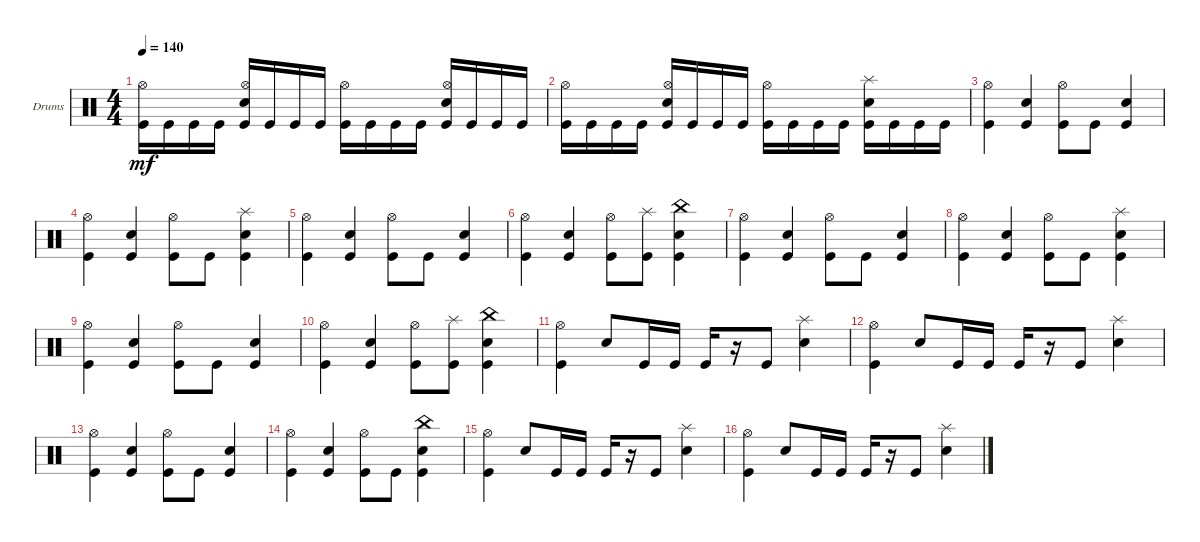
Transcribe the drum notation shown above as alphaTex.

\defaultSystemsLayout 4
\bracketExtendMode groupsimilarinstruments
\firstSystemTrackNameOrientation horizontal
\otherSystemsTrackNameOrientation horizontal
\track ("Drumkit" "Drums") {instrument percussion}
\staff {score}
\articulation defaults
\ts (4 4)
\tempo 140
\clef neutral
\scale
0.333333
\ks c
("Kick (hit)" "Hi-Hat (open)").16{dy mf} "Kick (hit)".16 "Kick (hit)".16 "Kick (hit)".16 ("Kick (hit)" "Snare (hit) 2" "Hi-Hat (open)").16 "Kick (hit)".16 "Kick (hit)".16 "Kick (hit)".16 ("Kick (hit)" "Hi-Hat (open)").16 "Kick (hit)".16 "Kick (hit)".16 "Kick (hit)".16 ("Kick (hit)" "Snare (hit) 2" "Hi-Hat (open)").16 "Kick (hit)".16 "Kick (hit)".16 "Kick (hit)".16 |
\scale
0.333333 ("Kick (hit)" "Hi-Hat (open)").16 "Kick (hit)".16 "Kick (hit)".16 "Kick (hit)".16 ("Kick (hit)" "Snare (hit) 2" "Hi-Hat (open)").16 "Kick (hit)".16 "Kick (hit)".16 "Kick (hit)".16 ("Kick (hit)" "Hi-Hat (open)").16 "Kick (hit)".16 "Kick (hit)".16 "Kick (hit)".16 ("Kick (hit)" "Snare (hit) 2" "Splash (hit)").16 "Kick (hit)".16 "Kick (hit)".16 "Kick (hit)".16 |
\scale
0.333333 ("Hi-Hat (open)" "Kick (hit)").4 ("Kick (hit)" "Snare (hit) 2").4 ("Hi-Hat (open)" "Kick (hit)").8 "Kick (hit)".8 ("Kick (hit)" "Snare (hit) 2").4 |
\scale
0.333333 ("Hi-Hat (open)" "Kick (hit)").4 ("Kick (hit)" "Snare (hit) 2").4 ("Hi-Hat (open)" "Kick (hit)").8 "Kick (hit)".8 ("Kick (hit)" "Snare (hit) 2" "Splash (hit)").4 |
\scale
0.333333 ("Hi-Hat (open)" "Kick (hit)").4 ("Kick (hit)" "Snare (hit) 2").4 ("Hi-Hat (open)" "Kick (hit)").8 "Kick (hit)".8 ("Kick (hit)" "Snare (hit) 2").4 |
\scale
0.333333 ("Hi-Hat (open)" "Kick (hit)").4 ("Kick (hit)" "Snare (hit) 2").4 ("Hi-Hat (open)" "Kick (hit)").8 ("Kick (hit)" "Splash (hit)").8 ("Kick (hit)" "Snare (hit) 2" "China (hit)").4 |
\scale
0.333333 ("Hi-Hat (open)" "Kick (hit)").4 ("Kick (hit)" "Snare (hit) 2").4 ("Hi-Hat (open)" "Kick (hit)").8 "Kick (hit)".8 ("Kick (hit)" "Snare (hit) 2").4 |
\scale
0.333333 ("Hi-Hat (open)" "Kick (hit)").4 ("Kick (hit)" "Snare (hit) 2").4 ("Hi-Hat (open)" "Kick (hit)").8 "Kick (hit)".8 ("Kick (hit)" "Snare (hit) 2" "Splash (hit)").4 |
\scale
0.333333 ("Hi-Hat (open)" "Kick (hit)").4 ("Kick (hit)" "Snare (hit) 2").4 ("Hi-Hat (open)" "Kick (hit)").8 "Kick (hit)".8 ("Kick (hit)" "Snare (hit) 2").4 |
\scale
0.333333 ("Hi-Hat (open)" "Kick (hit)").4 ("Kick (hit)" "Snare (hit) 2").4 ("Hi-Hat (open)" "Kick (hit)").8 ("Kick (hit)" "Splash (hit)").8 ("Kick (hit)" "Snare (hit) 2" "China (hit)").4 |
\scale
0.333333 ("Kick (hit)" "Hi-Hat (open)").4 "Snare (hit) 2".8 "Kick (hit)".16 "Kick (hit)".16 "Kick (hit)".16 r.16 "Kick (hit)".8 ("Snare (hit) 2" "Splash (hit)").4 |
\scale
0.333333 ("Kick (hit)" "Hi-Hat (open)").4 "Snare (hit) 2".8 "Kick (hit)".16 "Kick (hit)".16 "Kick (hit)".16 r.16 "Kick (hit)".8 ("Snare (hit) 2" "Splash (hit)").4 |
\scale
0.333333 ("Kick (hit)" "Hi-Hat (open)").4 ("Kick (hit)" "Snare (hit) 2").4 ("Kick (hit)" "Hi-Hat (open)").8 "Kick (hit)".8 ("Kick (hit)" "Snare (hit) 2").4 |
\scale
0.333333 ("Kick (hit)" "Hi-Hat (open)").4 ("Kick (hit)" "Snare (hit) 2").4 ("Kick (hit)" "Hi-Hat (open)").8 "Kick (hit)".8 ("Kick (hit)" "Snare (hit) 2" "China (hit)").4 |
\scale
0.333333 ("Kick (hit)" "Hi-Hat (open)").4 "Snare (hit) 2".8 "Kick (hit)".16 "Kick (hit)".16 "Kick (hit)".16 r.16 "Kick (hit)".8 ("Snare (hit) 2" "Splash (hit)").4 |
\scale
0.333333 ("Kick (hit)" "Hi-Hat (open)").4 "Snare (hit) 2".8 "Kick (hit)".16 "Kick (hit)".16 "Kick (hit)".16 r.16 "Kick (hit)".8 ("Snare (hit) 2" "Splash (hit)").4
